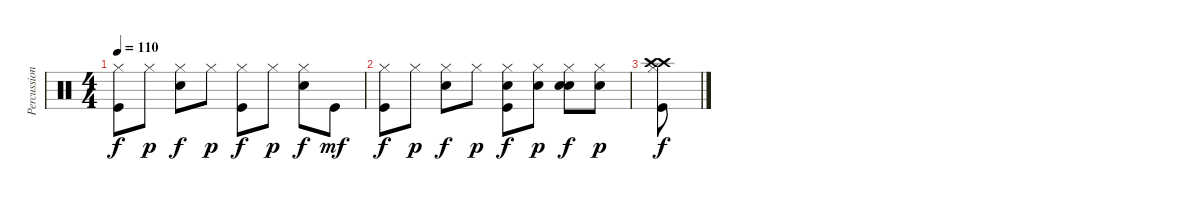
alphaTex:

\track ("Percussions" "Percussion") {instrument percussion}
\staff {score}
\articulation defaults
\ts (4 4)
\tempo 110
\clef neutral
\ks c
("Kick (hit)" "Hi-Hat (closed)").8{dy f} "Hi-Hat (closed)".8{dy p} ("Snare (hit) 2" "Hi-Hat (closed)").8{dy f} "Hi-Hat (closed)".8{dy p} ("Kick (hit)" "Hi-Hat (closed)").8{dy f} "Hi-Hat (closed)".8{dy p} ("Snare (hit) 2" "Hi-Hat (closed)").8{dy f} "Kick (hit)".8{dy mf} |
("Kick (hit)" "Hi-Hat (closed)").8{dy f} "Hi-Hat (closed)".8{dy p} ("Snare (hit) 2" "Hi-Hat (closed)").8{dy f} "Hi-Hat (closed)".8{dy p} ("Kick (hit)" "Electric Snare (hit)" "Hi-Hat (closed)").8{dy f} ("Hi-Hat (closed)" "Electric Snare (hit)").8{dy p} ("Snare (hit) 2" "Electric Snare (hit)" "Hi-Hat (closed)").8{dy f} ("Hi-Hat (closed)" "Electric Snare (hit)").8{dy p} |
("Kick (hit)" "Crash high (hit)" "Hi-Hat (closed)" "Crash high (hit)").8{dy f}
